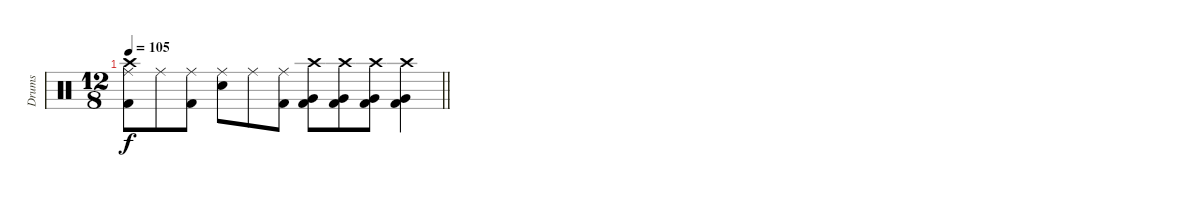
\track ("Drums" "Drums") {instrument percussion}
\staff {score}
\articulation defaults
\ts (12 8)
\tempo 105
\clef neutral
\barLineRight lightlight
\ks c
("Crash high (hit)" "Ride (middle)" "Kick (hit) 2").8{dy f} "Ride (middle)".8 ("Ride (middle)" "Kick (hit) 2").8 ("Ride (middle)" "Snare (hit) 2").8 "Ride (middle)".8 ("Ride (middle)" "Kick (hit) 2").8 ("Crash high (hit)" "Very Low Tom (hit)" "Kick (hit) 2").8 ("Crash high (hit)" "Very Low Tom (hit)" "Kick (hit) 2").8 ("Crash high (hit)" "Very Low Tom (hit)" "Kick (hit) 2").8 ("Crash high (hit)" "Very Low Tom (hit)" "Kick (hit) 2").4
